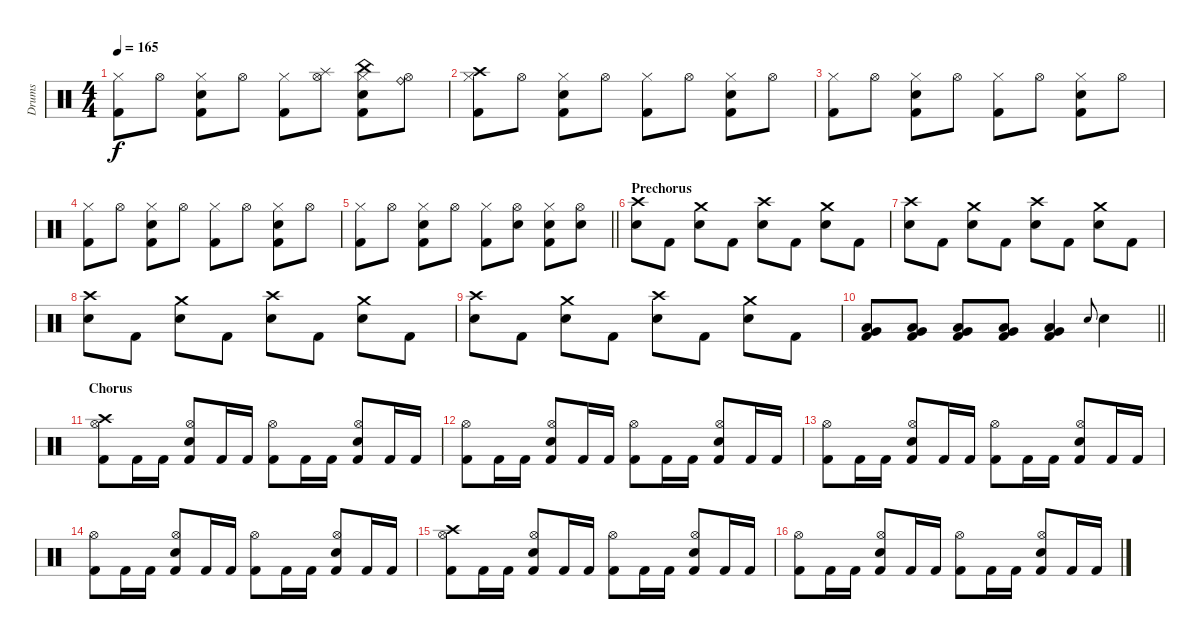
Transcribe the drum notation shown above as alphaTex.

\track ("Drums" "Drums") {instrument percussion}
\staff {score}
\articulation defaults
\ts (4 4)
\tempo 165
\clef neutral
\ks c
("Hi-Hat (closed)" "Kick (hit) 2").8{dy f} "Hi-Hat (open)".8 ("Hi-Hat (closed)" "Snare (hit) 2" "Kick (hit) 2").8 "Hi-Hat (open)".8 ("Hi-Hat (closed)" "Kick (hit) 2").8 ("Splash (hit)" "Hi-Hat (open)").8 ("China (hit)" "Hi-Hat (closed)" "Snare (hit) 2" "Kick (hit) 2").8 ("Ride (bell)" "Hi-Hat (open)").8 |
("Crash high (hit)" "Hi-Hat (closed)" "Kick (hit) 2").8 "Hi-Hat (open)".8 ("Hi-Hat (closed)" "Snare (hit) 2" "Kick (hit) 2").8 "Hi-Hat (open)".8 ("Hi-Hat (closed)" "Kick (hit) 2").8 "Hi-Hat (open)".8 ("Hi-Hat (closed)" "Snare (hit) 2" "Kick (hit) 2").8 "Hi-Hat (open)".8 |
("Hi-Hat (closed)" "Kick (hit) 2").8 "Hi-Hat (open)".8 ("Hi-Hat (closed)" "Snare (hit) 2" "Kick (hit) 2").8 "Hi-Hat (open)".8 ("Hi-Hat (closed)" "Kick (hit) 2").8 "Hi-Hat (open)".8 ("Hi-Hat (closed)" "Snare (hit) 2" "Kick (hit) 2").8 "Hi-Hat (open)".8 |
("Hi-Hat (closed)" "Kick (hit) 2").8 "Hi-Hat (open)".8 ("Hi-Hat (closed)" "Snare (hit) 2" "Kick (hit) 2").8 "Hi-Hat (open)".8 ("Hi-Hat (closed)" "Kick (hit) 2").8 "Hi-Hat (open)".8 ("Hi-Hat (closed)" "Snare (hit) 2" "Kick (hit) 2").8 "Hi-Hat (open)".8 |
\barLineRight lightlight
("Hi-Hat (closed)" "Kick (hit) 2").8 "Hi-Hat (open)".8 ("Hi-Hat (closed)" "Snare (hit) 2" "Kick (hit) 2").8 "Hi-Hat (open)".8 ("Hi-Hat (closed)" "Kick (hit) 2").8 ("Hi-Hat (open)" "Snare (hit) 2").8 ("Hi-Hat (closed)" "Snare (hit) 2" "Kick (hit) 2").8 ("Hi-Hat (open)" "Snare (hit) 2").8 |
\section ("" "Prechorus")
("Crash high (hit)" "Snare (hit) 2").8 "Kick (hit) 2".8 ("Crash medium (hit)" "Snare (hit) 2").8 "Kick (hit) 2".8 ("Crash high (hit)" "Snare (hit) 2").8 "Kick (hit) 2".8 ("Crash medium (hit)" "Snare (hit) 2").8 "Kick (hit) 2".8 |
("Crash high (hit)" "Snare (hit) 2").8 "Kick (hit) 2".8 ("Crash medium (hit)" "Snare (hit) 2").8 "Kick (hit) 2".8 ("Crash high (hit)" "Snare (hit) 2").8 "Kick (hit) 2".8 ("Crash medium (hit)" "Snare (hit) 2").8 "Kick (hit) 2".8 |
("Crash high (hit)" "Snare (hit) 2").8 "Kick (hit) 2".8 ("Crash medium (hit)" "Snare (hit) 2").8 "Kick (hit) 2".8 ("Crash high (hit)" "Snare (hit) 2").8 "Kick (hit) 2".8 ("Crash medium (hit)" "Snare (hit) 2").8 "Kick (hit) 2".8 |
("Crash high (hit)" "Snare (hit) 2").8 "Kick (hit) 2".8 ("Crash medium (hit)" "Snare (hit) 2").8 "Kick (hit) 2".8 ("Crash high (hit)" "Snare (hit) 2").8 "Kick (hit) 2".8 ("Crash medium (hit)" "Snare (hit) 2").8 "Kick (hit) 2".8 |
\barLineRight lightlight
("Very Low Tom (hit)" "Low Floor Tom (hit)" "Kick (hit) 2").8 ("Very Low Tom (hit)" "Low Floor Tom (hit)" "Kick (hit) 2").8 ("Very Low Tom (hit)" "Low Floor Tom (hit)" "Kick (hit) 2").8 ("Very Low Tom (hit)" "Low Floor Tom (hit)" "Kick (hit) 2").8 ("Very Low Tom (hit)" "Low Floor Tom (hit)" "Kick (hit) 2").4 "Snare (hit) 2".8{gr onbeat} "Snare (hit) 2".4 |
\section ("" "Chorus")
("Crash high (hit)" "Hi-Hat (open)" "Kick (hit) 2").8 "Kick (hit) 2".16 "Kick (hit) 2".16 ("Hi-Hat (open)" "Snare (hit) 2" "Kick (hit) 2").8 "Kick (hit) 2".16 "Kick (hit) 2".16 ("Hi-Hat (open)" "Kick (hit) 2").8 "Kick (hit) 2".16 "Kick (hit) 2".16 ("Hi-Hat (open)" "Snare (hit) 2" "Kick (hit) 2").8 "Kick (hit) 2".16 "Kick (hit) 2".16 |
("Hi-Hat (open)" "Kick (hit) 2").8 "Kick (hit) 2".16 "Kick (hit) 2".16 ("Hi-Hat (open)" "Snare (hit) 2" "Kick (hit) 2").8 "Kick (hit) 2".16 "Kick (hit) 2".16 ("Hi-Hat (open)" "Kick (hit) 2").8 "Kick (hit) 2".16 "Kick (hit) 2".16 ("Hi-Hat (open)" "Snare (hit) 2" "Kick (hit) 2").8 "Kick (hit) 2".16 "Kick (hit) 2".16 |
("Hi-Hat (open)" "Kick (hit) 2").8 "Kick (hit) 2".16 "Kick (hit) 2".16 ("Hi-Hat (open)" "Snare (hit) 2" "Kick (hit) 2").8 "Kick (hit) 2".16 "Kick (hit) 2".16 ("Hi-Hat (open)" "Kick (hit) 2").8 "Kick (hit) 2".16 "Kick (hit) 2".16 ("Hi-Hat (open)" "Snare (hit) 2" "Kick (hit) 2").8 "Kick (hit) 2".16 "Kick (hit) 2".16 |
("Hi-Hat (open)" "Kick (hit) 2").8 "Kick (hit) 2".16 "Kick (hit) 2".16 ("Hi-Hat (open)" "Snare (hit) 2" "Kick (hit) 2").8 "Kick (hit) 2".16 "Kick (hit) 2".16 ("Hi-Hat (open)" "Kick (hit) 2").8 "Kick (hit) 2".16 "Kick (hit) 2".16 ("Hi-Hat (open)" "Snare (hit) 2" "Kick (hit) 2").8 "Kick (hit) 2".16 "Kick (hit) 2".16 |
("Crash high (hit)" "Hi-Hat (open)" "Kick (hit) 2").8 "Kick (hit) 2".16 "Kick (hit) 2".16 ("Hi-Hat (open)" "Snare (hit) 2" "Kick (hit) 2").8 "Kick (hit) 2".16 "Kick (hit) 2".16 ("Hi-Hat (open)" "Kick (hit) 2").8 "Kick (hit) 2".16 "Kick (hit) 2".16 ("Hi-Hat (open)" "Snare (hit) 2" "Kick (hit) 2").8 "Kick (hit) 2".16 "Kick (hit) 2".16 |
("Hi-Hat (open)" "Kick (hit) 2").8 "Kick (hit) 2".16 "Kick (hit) 2".16 ("Hi-Hat (open)" "Snare (hit) 2" "Kick (hit) 2").8 "Kick (hit) 2".16 "Kick (hit) 2".16 ("Hi-Hat (open)" "Kick (hit) 2").8 "Kick (hit) 2".16 "Kick (hit) 2".16 ("Hi-Hat (open)" "Snare (hit) 2" "Kick (hit) 2").8 "Kick (hit) 2".16 "Kick (hit) 2".16
